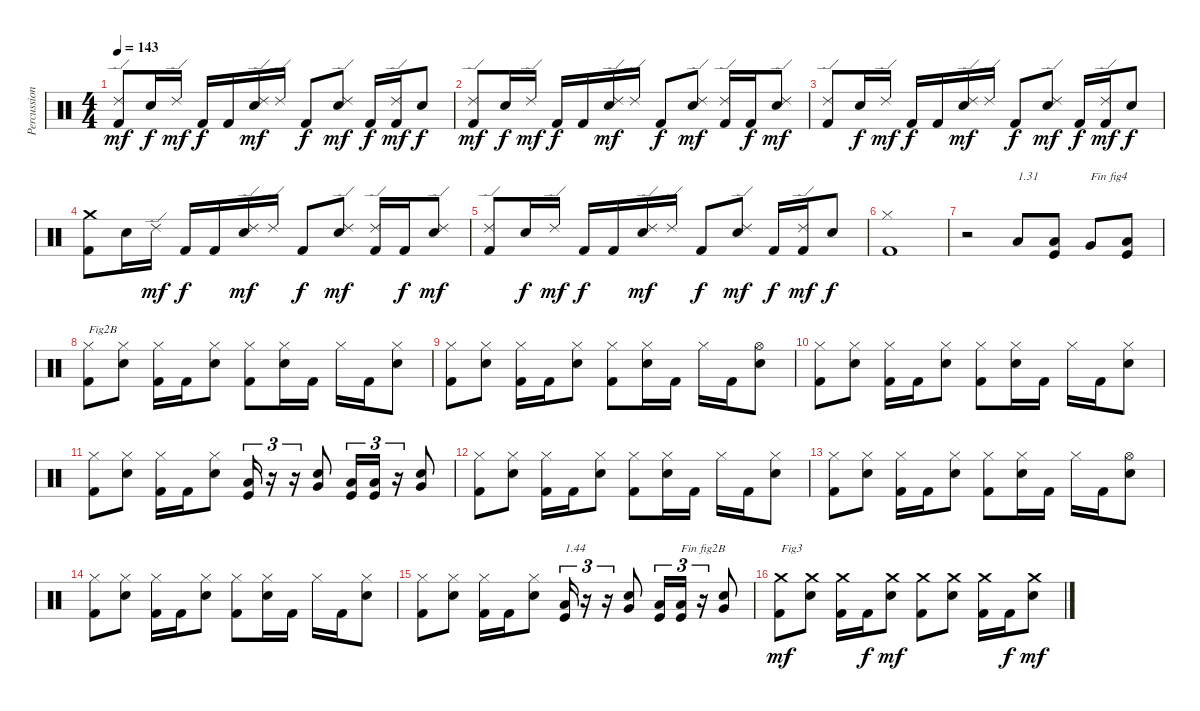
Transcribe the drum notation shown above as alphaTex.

\track ("Percussions" "Percussion") {instrument percussion}
\staff {score}
\articulation defaults
\ts (4 4)
\tempo 143
\clef neutral
\ks c
("Kick (hit) 2" "Ride (edge) 2").8{dy mf} "Electric Snare (hit)".16{dy f} "Ride (edge) 2".16{dy mf} "Kick (hit) 2".16{dy f} "Kick (hit) 2".16 ("Electric Snare (hit)" "Ride (edge) 2").16{dy mf} "Ride (edge) 2".16 "Kick (hit) 2".8{dy f} ("Electric Snare (hit)" "Ride (edge) 2").8{dy mf} "Kick (hit) 2".16{dy f} ("Kick (hit) 2" "Ride (edge) 2").16{dy mf} "Electric Snare (hit)".8{dy f} |
("Kick (hit) 2" "Ride (edge) 2").8{dy mf} "Electric Snare (hit)".16{dy f} "Ride (edge) 2".16{dy mf} "Kick (hit) 2".16{dy f} "Kick (hit) 2".16 ("Electric Snare (hit)" "Ride (edge) 2").16{dy mf} "Ride (edge) 2".16 "Kick (hit) 2".8{dy f} ("Electric Snare (hit)" "Ride (edge) 2").8{dy mf} ("Kick (hit) 2" "Ride (edge) 2").16 "Kick (hit) 2".16{dy f} ("Electric Snare (hit)" "Ride (edge) 2").8{dy mf} |
("Kick (hit) 2" "Ride (edge) 2").8 "Electric Snare (hit)".16{dy f} "Ride (edge) 2".16{dy mf} "Kick (hit) 2".16{dy f} "Kick (hit) 2".16 ("Electric Snare (hit)" "Ride (edge) 2").16{dy mf} "Ride (edge) 2".16 "Kick (hit) 2".8{dy f} ("Electric Snare (hit)" "Ride (edge) 2").8{dy mf} "Kick (hit) 2".16{dy f} ("Kick (hit) 2" "Ride (edge) 2").16{dy mf} "Electric Snare (hit)".8{dy f} |
("Kick (hit) 2" "Crash medium (hit)").8 "Electric Snare (hit)".16 "Ride (edge) 2".16{dy mf} "Kick (hit) 2".16{dy f} "Kick (hit) 2".16 ("Electric Snare (hit)" "Ride (edge) 2").16{dy mf} "Ride (edge) 2".16 "Kick (hit) 2".8{dy f} ("Electric Snare (hit)" "Ride (edge) 2").8{dy mf} ("Kick (hit) 2" "Ride (edge) 2").16 "Kick (hit) 2".16{dy f} ("Electric Snare (hit)" "Ride (edge) 2").8{dy mf} |
("Kick (hit) 2" "Ride (edge) 2").8 "Electric Snare (hit)".16{dy f} "Ride (edge) 2".16{dy mf} "Kick (hit) 2".16{dy f} "Kick (hit) 2".16 ("Electric Snare (hit)" "Ride (edge) 2").16{dy mf} "Ride (edge) 2".16 "Kick (hit) 2".8{dy f} ("Electric Snare (hit)" "Ride (edge) 2").8{dy mf} "Kick (hit) 2".16{dy f} ("Kick (hit) 2" "Ride (edge) 2").16{dy mf} "Electric Snare (hit)".8{dy f} |
("Kick (hit) 2" "Hi-Hat (closed)").1 |
r.2 "Low Tom (hit)".8{txt "1.31"} ("Low Floor Tom (hit)" "Kick (hit)").8 "Very Low Tom (hit)".8{txt "Fin fig4"} ("Low Floor Tom (hit)" "Kick (hit)").8 |
("Kick (hit) 2" "Hi-Hat (closed)").8{txt "Fig2B"} ("Electric Snare (hit)" "Hi-Hat (closed)").8 ("Kick (hit) 2" "Hi-Hat (closed)").16 "Kick (hit) 2".16 ("Electric Snare (hit)" "Hi-Hat (closed)").8 ("Kick (hit) 2" "Hi-Hat (closed)").8 ("Electric Snare (hit)" "Hi-Hat (closed)").16 "Kick (hit) 2".16 "Hi-Hat (closed)".16 "Kick (hit) 2".16 ("Electric Snare (hit)" "Hi-Hat (closed)").8 |
("Kick (hit) 2" "Hi-Hat (closed)").8 ("Electric Snare (hit)" "Hi-Hat (closed)").8 ("Kick (hit) 2" "Hi-Hat (closed)").16 "Kick (hit) 2".16 ("Electric Snare (hit)" "Hi-Hat (closed)").8 ("Kick (hit) 2" "Hi-Hat (closed)").8 ("Electric Snare (hit)" "Hi-Hat (closed)").16 "Kick (hit) 2".16 "Hi-Hat (closed)".16 "Kick (hit) 2".16 ("Electric Snare (hit)" "Hi-Hat (open)").8 |
("Kick (hit) 2" "Hi-Hat (closed)").8 ("Electric Snare (hit)" "Hi-Hat (closed)").8 ("Kick (hit) 2" "Hi-Hat (closed)").16 "Kick (hit) 2".16 ("Electric Snare (hit)" "Hi-Hat (closed)").8 ("Kick (hit) 2" "Hi-Hat (closed)").8 ("Electric Snare (hit)" "Hi-Hat (closed)").16 "Kick (hit) 2".16 "Hi-Hat (closed)".16 "Kick (hit) 2".16 ("Electric Snare (hit)" "Hi-Hat (closed)").8 |
("Kick (hit) 2" "Hi-Hat (closed)").8 ("Electric Snare (hit)" "Hi-Hat (closed)").8 ("Kick (hit) 2" "Hi-Hat (closed)").16 "Kick (hit) 2".16 ("Electric Snare (hit)" "Hi-Hat (closed)").8 ("Kick (hit)" "Low Floor Tom (hit)").16{tu (3 2)} r.16{tu (3 2)} r.16{tu (3 2)} ("Electric Snare (hit)" "Very Low Tom (hit)").8 ("Kick (hit)" "Low Floor Tom (hit)").16{tu (3 2)} ("Kick (hit)" "Low Floor Tom (hit)").16{tu (3 2)} r.16{tu (3 2)} ("Electric Snare (hit)" "Very Low Tom (hit)").8 |
("Kick (hit) 2" "Hi-Hat (closed)").8 ("Electric Snare (hit)" "Hi-Hat (closed)").8 ("Kick (hit) 2" "Hi-Hat (closed)").16 "Kick (hit) 2".16 ("Electric Snare (hit)" "Hi-Hat (closed)").8 ("Kick (hit) 2" "Hi-Hat (closed)").8 ("Electric Snare (hit)" "Hi-Hat (closed)").16 "Kick (hit) 2".16 "Hi-Hat (closed)".16 "Kick (hit) 2".16 ("Electric Snare (hit)" "Hi-Hat (closed)").8 |
("Kick (hit) 2" "Hi-Hat (closed)").8 ("Electric Snare (hit)" "Hi-Hat (closed)").8 ("Kick (hit) 2" "Hi-Hat (closed)").16 "Kick (hit) 2".16 ("Electric Snare (hit)" "Hi-Hat (closed)").8 ("Kick (hit) 2" "Hi-Hat (closed)").8 ("Electric Snare (hit)" "Hi-Hat (closed)").16 "Kick (hit) 2".16 "Hi-Hat (closed)".16 "Kick (hit) 2".16 ("Electric Snare (hit)" "Hi-Hat (open)").8 |
("Kick (hit) 2" "Hi-Hat (closed)").8 ("Electric Snare (hit)" "Hi-Hat (closed)").8 ("Kick (hit) 2" "Hi-Hat (closed)").16 "Kick (hit) 2".16 ("Electric Snare (hit)" "Hi-Hat (closed)").8 ("Kick (hit) 2" "Hi-Hat (closed)").8 ("Electric Snare (hit)" "Hi-Hat (closed)").16 "Kick (hit) 2".16 "Hi-Hat (closed)".16 "Kick (hit) 2".16 ("Electric Snare (hit)" "Hi-Hat (closed)").8 |
("Kick (hit) 2" "Hi-Hat (closed)").8 ("Electric Snare (hit)" "Hi-Hat (closed)").8 ("Kick (hit) 2" "Hi-Hat (closed)").16 "Kick (hit) 2".16 ("Electric Snare (hit)" "Hi-Hat (closed)").8 ("Kick (hit)" "Low Floor Tom (hit)").16{tu (3 2) txt "1.44"} r.16{tu (3 2)} r.16{tu (3 2)} ("Electric Snare (hit)" "Very Low Tom (hit)").8 ("Kick (hit)" "Low Floor Tom (hit)").16{tu (3 2)} ("Kick (hit)" "Low Floor Tom (hit)").16{tu (3 2) txt "Fin fig2B"} r.16{tu (3 2)} ("Electric Snare (hit)" "Very Low Tom (hit)").8 |
("Kick (hit) 2" "Crash medium (hit)").8{txt "Fig3" dy mf} ("Electric Snare (hit)" "Crash medium (hit)").8 ("Kick (hit) 2" "Crash medium (hit)").16 "Kick (hit) 2".16{dy f} ("Electric Snare (hit)" "Crash medium (hit)").8{dy mf} ("Kick (hit) 2" "Crash medium (hit)").8 ("Electric Snare (hit)" "Crash medium (hit)").8 ("Kick (hit) 2" "Crash medium (hit)").16 "Kick (hit) 2".16{dy f} ("Electric Snare (hit)" "Crash medium (hit)").8{dy mf}
